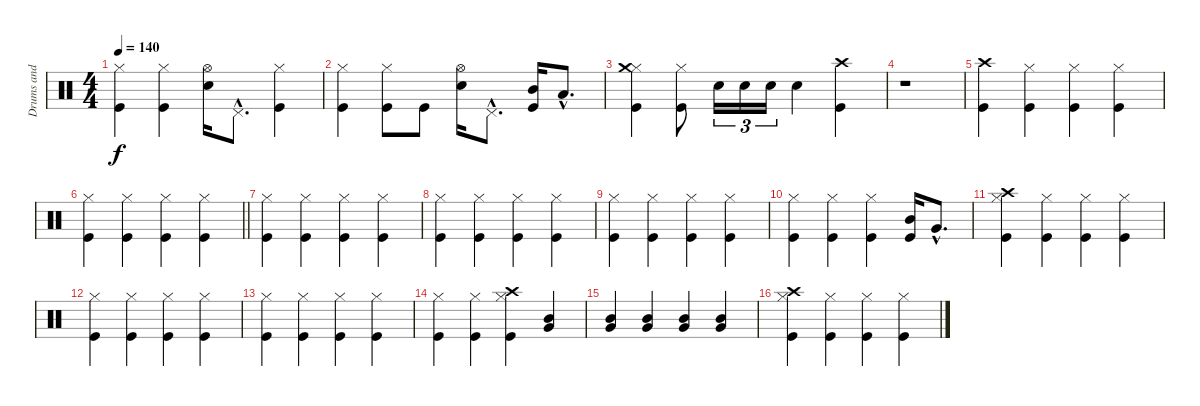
\track ("Drums and percussion" "Drums and ") {instrument percussion}
\staff {score}
\articulation defaults
\ts (4 4)
\tempo 140
\clef neutral
\ks c
("Hi-Hat (closed)" "Kick (hit)").4{dy f} ("Hi-Hat (closed)" "Kick (hit)").4 ("Hi-Hat (open)" "Electric Snare (hit)").16 "Pedal Hi-Hat (hit)"{hac}.8{d} ("Hi-Hat (closed)" "Kick (hit)").4 |
("Hi-Hat (closed)" "Kick (hit)").4 ("Hi-Hat (closed)" "Kick (hit)").8 "Kick (hit)".8 ("Hi-Hat (open)" "Electric Snare (hit)").16 "Pedal Hi-Hat (hit)"{hac}.8{d} ("Mid Tom (hit)" "Kick (hit)").16 "Low Tom (hit)"{hac}.8{d} |
("Hi-Hat (closed)" "Crash medium (hit)" "Kick (hit)").4 ("Hi-Hat (closed)" "Kick (hit)").8 "Electric Snare (hit)".16{tu (3 2)} "Electric Snare (hit)".16{tu (3 2)} "Electric Snare (hit)".16{tu (3 2)} "Electric Snare (hit)".4 ("Crash high (hit)" "Kick (hit)").4 |
r.1 |
("Crash high (hit)" "Kick (hit)").4 ("Hi-Hat (closed)" "Kick (hit)").4 ("Hi-Hat (closed)" "Kick (hit)").4 ("Hi-Hat (closed)" "Kick (hit)").4 |
\barLineRight lightlight
("Hi-Hat (closed)" "Kick (hit)").4 ("Hi-Hat (closed)" "Kick (hit)").4 ("Hi-Hat (closed)" "Kick (hit)").4 ("Hi-Hat (closed)" "Kick (hit)").4 |
("Hi-Hat (closed)" "Kick (hit)").4 ("Hi-Hat (closed)" "Kick (hit)").4 ("Hi-Hat (closed)" "Kick (hit)").4 ("Hi-Hat (closed)" "Kick (hit)").4 |
("Hi-Hat (closed)" "Kick (hit)").4 ("Hi-Hat (closed)" "Kick (hit)").4 ("Hi-Hat (closed)" "Kick (hit)").4 ("Hi-Hat (closed)" "Kick (hit)").4 |
("Hi-Hat (closed)" "Kick (hit)").4 ("Hi-Hat (closed)" "Kick (hit)").4 ("Hi-Hat (closed)" "Kick (hit)").4 ("Hi-Hat (closed)" "Kick (hit)").4 |
("Hi-Hat (closed)" "Kick (hit)").4 ("Hi-Hat (closed)" "Kick (hit)").4 ("Hi-Hat (closed)" "Kick (hit)").4 ("Mid Tom (hit)" "Kick (hit)").16 "Very Low Tom (hit)"{hac}.8{d} |
("Hi-Hat (closed)" "Crash high (hit)" "Kick (hit)").4 ("Hi-Hat (closed)" "Kick (hit)").4 ("Hi-Hat (closed)" "Kick (hit)").4 ("Hi-Hat (closed)" "Kick (hit)").4 |
("Hi-Hat (closed)" "Kick (hit)").4 ("Hi-Hat (closed)" "Kick (hit)").4 ("Hi-Hat (closed)" "Kick (hit)").4 ("Hi-Hat (closed)" "Kick (hit)").4 |
("Hi-Hat (closed)" "Kick (hit)").4 ("Hi-Hat (closed)" "Kick (hit)").4 ("Hi-Hat (closed)" "Kick (hit)").4 ("Hi-Hat (closed)" "Kick (hit)").4 |
("Hi-Hat (closed)" "Kick (hit)").4 ("Hi-Hat (closed)" "Kick (hit)").4 ("Hi-Hat (closed)" "Crash high (hit)" "Kick (hit)").4 ("Mid Tom (hit)" "Very Low Tom (hit)").4 |
("Mid Tom (hit)" "Very Low Tom (hit)").4 ("Mid Tom (hit)" "Very Low Tom (hit)").4 ("Mid Tom (hit)" "Very Low Tom (hit)").4 ("Mid Tom (hit)" "Very Low Tom (hit)").4 |
("Hi-Hat (closed)" "Crash high (hit)" "Kick (hit)").4 ("Hi-Hat (closed)" "Kick (hit)").4 ("Hi-Hat (closed)" "Kick (hit)").4 ("Hi-Hat (closed)" "Kick (hit)").4
